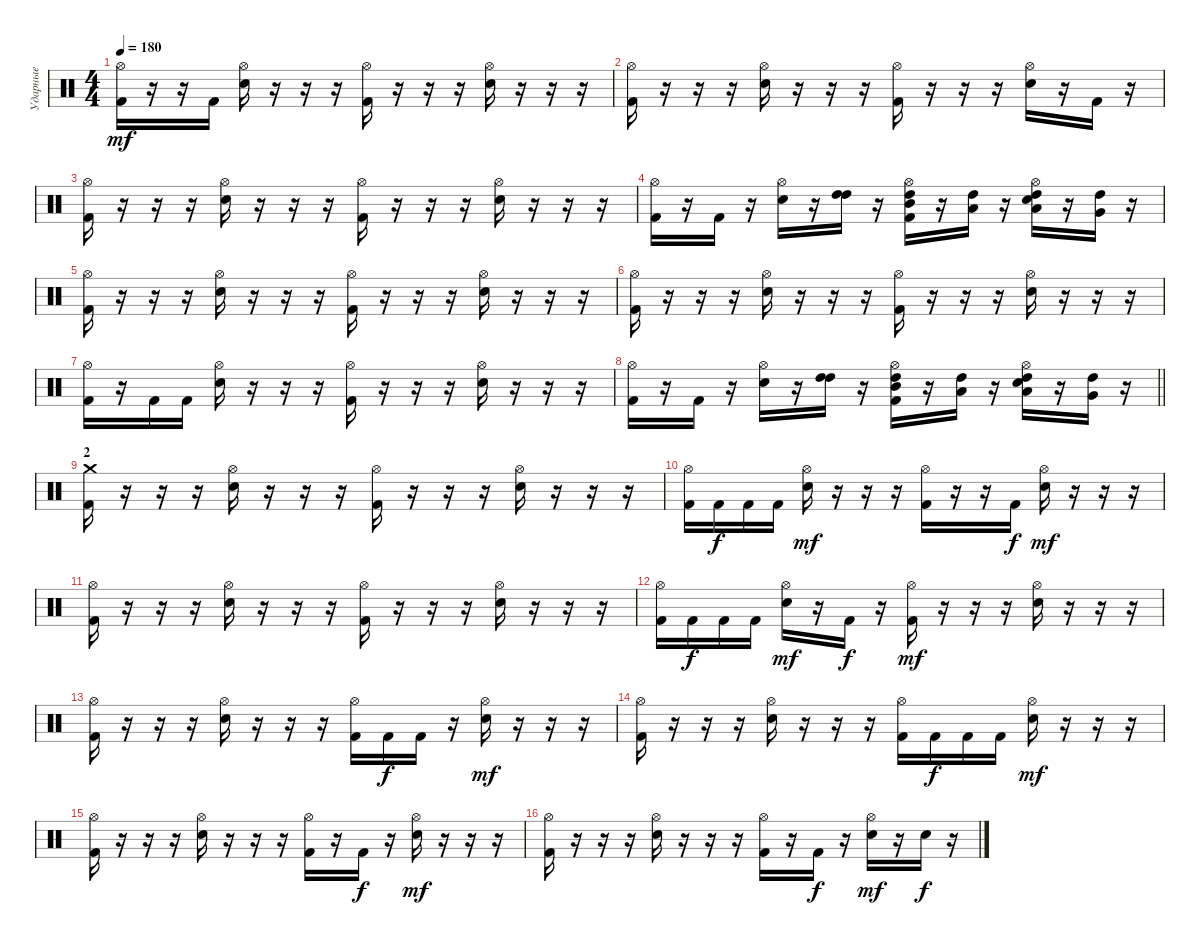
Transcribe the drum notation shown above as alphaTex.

\track ("Ударные" "Ударные") {instrument percussion}
\staff {score}
\articulation defaults
\ts (4 4)
\tempo 180
\clef neutral
\ks c
("Hi-Hat (open)" "Kick (hit) 2").16{dy mf} r.16 r.16 "Kick (hit) 2".16 ("Hi-Hat (open)" "Snare (hit) 2").16 r.16 r.16 r.16 ("Hi-Hat (open)" "Kick (hit) 2").16 r.16 r.16 r.16 ("Hi-Hat (open)" "Snare (hit) 2").16 r.16 r.16 r.16 |
("Hi-Hat (open)" "Kick (hit) 2").16 r.16 r.16 r.16 ("Hi-Hat (open)" "Snare (hit) 2").16 r.16 r.16 r.16 ("Hi-Hat (open)" "Kick (hit) 2").16 r.16 r.16 r.16 ("Hi-Hat (open)" "Snare (hit) 2").16 r.16 "Kick (hit) 2".16 r.16 |
("Hi-Hat (open)" "Kick (hit) 2").16 r.16 r.16 r.16 ("Hi-Hat (open)" "Snare (hit) 2").16 r.16 r.16 r.16 ("Hi-Hat (open)" "Kick (hit) 2").16 r.16 r.16 r.16 ("Hi-Hat (open)" "Snare (hit) 2").16 r.16 r.16 r.16 |
("Hi-Hat (open)" "Kick (hit) 2").16 r.16 "Kick (hit) 2".16 r.16 ("Hi-Hat (open)" "Snare (hit) 2").16 r.16 ("High Tom (hit)" "High Tom (hit)").16 r.16 ("Hi-Hat (open)" "Mid Tom (hit)" "High Tom (hit)" "Kick (hit) 2").16 r.16 ("Low Tom (hit)" "High Tom (hit)").16 r.16 ("Hi-Hat (open)" "Low Tom (hit)" "High Tom (hit)" "Snare (hit) 2").16 r.16 ("Very Low Tom (hit)" "High Tom (hit)").16 r.16 |
("Hi-Hat (open)" "Kick (hit) 2").16 r.16 r.16 r.16 ("Hi-Hat (open)" "Snare (hit) 2").16 r.16 r.16 r.16 ("Hi-Hat (open)" "Kick (hit) 2").16 r.16 r.16 r.16 ("Hi-Hat (open)" "Snare (hit) 2").16 r.16 r.16 r.16 |
("Hi-Hat (open)" "Kick (hit) 2").16 r.16 r.16 r.16 ("Hi-Hat (open)" "Snare (hit) 2").16 r.16 r.16 r.16 ("Hi-Hat (open)" "Kick (hit) 2").16 r.16 r.16 r.16 ("Hi-Hat (open)" "Snare (hit) 2").16 r.16 r.16 r.16 |
("Hi-Hat (open)" "Kick (hit) 2").16 r.16 "Kick (hit) 2".16 "Kick (hit) 2".16 ("Hi-Hat (open)" "Snare (hit) 2").16 r.16 r.16 r.16 ("Hi-Hat (open)" "Kick (hit) 2").16 r.16 r.16 r.16 ("Hi-Hat (open)" "Snare (hit) 2").16 r.16 r.16 r.16 |
\barLineRight lightlight
("Hi-Hat (open)" "Kick (hit) 2").16 r.16 "Kick (hit) 2".16 r.16 ("Hi-Hat (open)" "Snare (hit) 2").16 r.16 ("High Tom (hit)" "High Tom (hit)").16 r.16 ("Hi-Hat (open)" "Mid Tom (hit)" "High Tom (hit)" "Kick (hit) 2").16 r.16 ("Low Tom (hit)" "High Tom (hit)").16 r.16 ("Hi-Hat (open)" "Low Tom (hit)" "High Tom (hit)" "Snare (hit) 2").16 r.16 ("Very Low Tom (hit)" "High Tom (hit)").16 r.16 |
\section ("" "2")
("Crash medium (hit)" "Kick (hit) 2").16 r.16 r.16 r.16 ("Hi-Hat (open)" "Snare (hit) 2").16 r.16 r.16 r.16 ("Hi-Hat (open)" "Kick (hit) 2").16 r.16 r.16 r.16 ("Hi-Hat (open)" "Snare (hit) 2").16 r.16 r.16 r.16 |
("Hi-Hat (open)" "Kick (hit) 2").16 "Kick (hit) 2".16{dy f} "Kick (hit) 2".16 "Kick (hit) 2".16 ("Hi-Hat (open)" "Snare (hit) 2").16{dy mf} r.16 r.16 r.16 ("Hi-Hat (open)" "Kick (hit) 2").16 r.16 r.16 "Kick (hit) 2".16{dy f} ("Hi-Hat (open)" "Snare (hit) 2").16{dy mf} r.16 r.16 r.16 |
("Hi-Hat (open)" "Kick (hit) 2").16 r.16 r.16 r.16 ("Hi-Hat (open)" "Snare (hit) 2").16 r.16 r.16 r.16 ("Hi-Hat (open)" "Kick (hit) 2").16 r.16 r.16 r.16 ("Hi-Hat (open)" "Snare (hit) 2").16 r.16 r.16 r.16 |
("Hi-Hat (open)" "Kick (hit) 2").16 "Kick (hit) 2".16{dy f} "Kick (hit) 2".16 "Kick (hit) 2".16 ("Hi-Hat (open)" "Snare (hit) 2").16{dy mf} r.16 "Kick (hit) 2".16{dy f} r.16 ("Hi-Hat (open)" "Kick (hit) 2").16{dy mf} r.16 r.16 r.16 ("Hi-Hat (open)" "Snare (hit) 2").16 r.16 r.16 r.16 |
("Hi-Hat (open)" "Kick (hit) 2").16 r.16 r.16 r.16 ("Hi-Hat (open)" "Snare (hit) 2").16 r.16 r.16 r.16 ("Hi-Hat (open)" "Kick (hit) 2").16 "Kick (hit) 2".16{dy f} "Kick (hit) 2".16 r.16 ("Hi-Hat (open)" "Snare (hit) 2").16{dy mf} r.16 r.16 r.16 |
("Hi-Hat (open)" "Kick (hit) 2").16 r.16 r.16 r.16 ("Hi-Hat (open)" "Snare (hit) 2").16 r.16 r.16 r.16 ("Hi-Hat (open)" "Kick (hit) 2").16 "Kick (hit) 2".16{dy f} "Kick (hit) 2".16 "Kick (hit) 2".16 ("Hi-Hat (open)" "Snare (hit) 2").16{dy mf} r.16 r.16 r.16 |
("Hi-Hat (open)" "Kick (hit) 2").16 r.16 r.16 r.16 ("Hi-Hat (open)" "Snare (hit) 2").16 r.16 r.16 r.16 ("Hi-Hat (open)" "Kick (hit) 2").16 r.16 "Kick (hit) 2".16{dy f} r.16 ("Hi-Hat (open)" "Snare (hit) 2").16{dy mf} r.16 r.16 r.16 |
("Hi-Hat (open)" "Kick (hit) 2").16 r.16 r.16 r.16 ("Hi-Hat (open)" "Snare (hit) 2").16 r.16 r.16 r.16 ("Hi-Hat (open)" "Kick (hit) 2").16 r.16 "Kick (hit) 2".16{dy f} r.16 ("Hi-Hat (open)" "Snare (hit) 2").16{dy mf} r.16 "Snare (hit) 2".16{dy f} r.16
